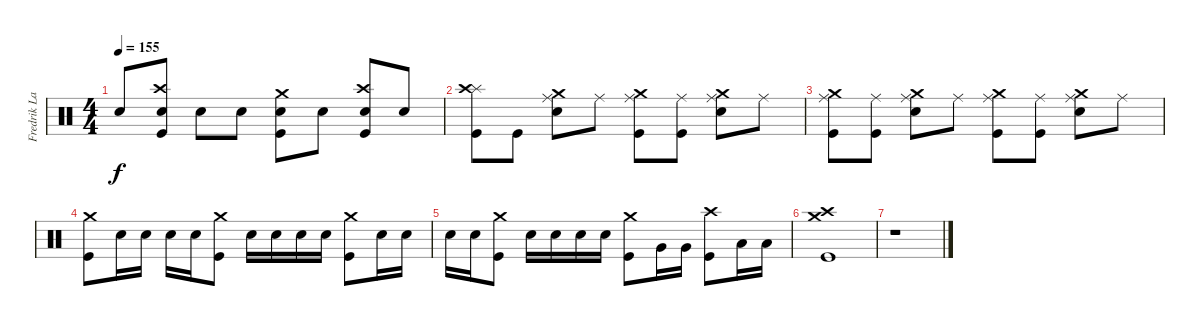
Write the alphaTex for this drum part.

\track ("Fredrik Larzon Drums" "Fredrik La") {instrument percussion}
\staff {score}
\articulation defaults
\ts (4 4)
\tempo 155
\clef neutral
\ks c "Electric Snare (hit)".8{dy f}
("Crash high (hit)" "Electric Snare (hit)" "Kick (hit)").8 "Electric Snare (hit)".8 "Electric Snare (hit)".8 ("Crash medium (hit)" "Electric Snare (hit)" "Kick (hit)").8 "Electric Snare (hit)".8 ("Crash high (hit)" "Electric Snare (hit)" "Kick (hit)").8 "Electric Snare (hit)".8 |
("Splash (hit)" "Crash high (hit)" "Kick (hit)").8 "Kick (hit)".8 ("Ride (middle)" "Crash medium (hit)" "Electric Snare (hit)").8 "Ride (middle)".8 ("Ride (middle)" "Crash medium (hit)" "Kick (hit)").8 ("Ride (middle)" "Kick (hit)").8 ("Ride (middle)" "Crash medium (hit)" "Electric Snare (hit)").8 "Ride (middle)".8 |
("Ride (middle)" "Crash medium (hit)" "Kick (hit)").8 ("Ride (middle)" "Kick (hit)").8 ("Ride (middle)" "Crash medium (hit)" "Electric Snare (hit)").8 "Ride (middle)".8 ("Ride (middle)" "Crash medium (hit)" "Kick (hit)").8 ("Ride (middle)" "Kick (hit)").8 ("Ride (middle)" "Crash medium (hit)" "Electric Snare (hit)").8 "Ride (middle)".8 |
("Crash medium (hit)" "Kick (hit)").8 "Electric Snare (hit)".16 "Electric Snare (hit)".16 "Electric Snare (hit)".16 "Electric Snare (hit)".16 ("Crash medium (hit)" "Kick (hit)").8 "Electric Snare (hit)".16 "Electric Snare (hit)".16 "Electric Snare (hit)".16 "Electric Snare (hit)".16 ("Crash medium (hit)" "Kick (hit)").8 "Electric Snare (hit)".16 "Electric Snare (hit)".16 |
"Electric Snare (hit)".16 "Electric Snare (hit)".16 ("Crash medium (hit)" "Kick (hit)").8 "Electric Snare (hit)".16 "Electric Snare (hit)".16 "Electric Snare (hit)".16 "Electric Snare (hit)".16 ("Crash medium (hit)" "Kick (hit)").8 "Very Low Tom (hit)".16 "Very Low Tom (hit)".16 ("Crash high (hit)" "Kick (hit)").8 "Low Floor Tom (hit)".16 "Low Floor Tom (hit)".16 |
("Crash medium (hit)" "Crash high (hit)" "Kick (hit)").1 |
r.1
